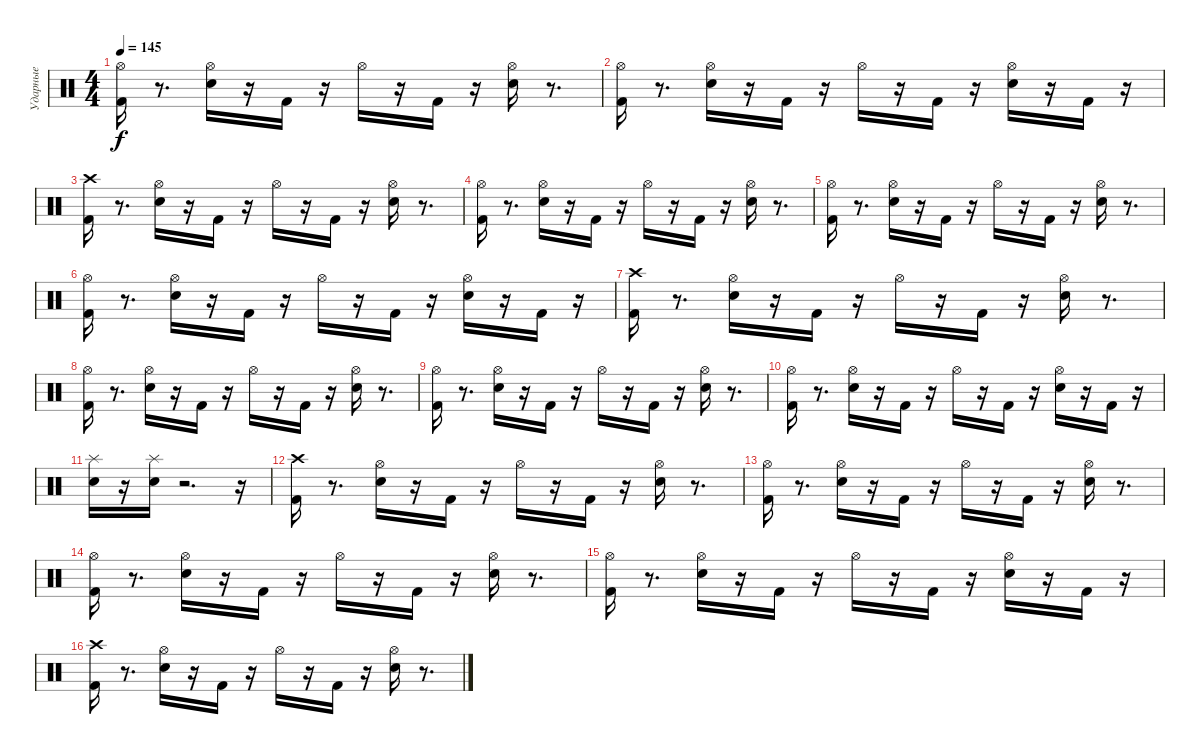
\track ("Ударные" "Ударные") {instrument percussion}
\staff {score}
\articulation defaults
\ts (4 4)
\tempo 145
\clef neutral
\ks c
("Hi-Hat (open)" "Kick (hit) 2").16{dy f} r.8{d} ("Hi-Hat (open)" "Electric Snare (hit)").16 r.16 "Kick (hit) 2".16 r.16 "Hi-Hat (open)".16 r.16 "Kick (hit) 2".16 r.16 ("Hi-Hat (open)" "Electric Snare (hit)").16 r.8{d} |
("Hi-Hat (open)" "Kick (hit) 2").16 r.8{d} ("Hi-Hat (open)" "Electric Snare (hit)").16 r.16 "Kick (hit) 2".16 r.16 "Hi-Hat (open)".16 r.16 "Kick (hit) 2".16 r.16 ("Electric Snare (hit)" "Hi-Hat (open)").16 r.16 "Kick (hit) 2".16 r.16 |
("Kick (hit) 2" "Crash high (hit)").16 r.8{d} ("Electric Snare (hit)" "Hi-Hat (open)").16 r.16 "Kick (hit) 2".16 r.16 "Hi-Hat (open)".16 r.16 "Kick (hit) 2".16 r.16 ("Hi-Hat (open)" "Electric Snare (hit)").16 r.8{d} |
("Kick (hit) 2" "Hi-Hat (open)").16 r.8{d} ("Hi-Hat (open)" "Electric Snare (hit)").16 r.16 "Kick (hit) 2".16 r.16 "Hi-Hat (open)".16 r.16 "Kick (hit) 2".16 r.16 ("Hi-Hat (open)" "Electric Snare (hit)").16 r.8{d} |
("Hi-Hat (open)" "Kick (hit) 2").16 r.8{d} ("Hi-Hat (open)" "Electric Snare (hit)").16 r.16 "Kick (hit) 2".16 r.16 "Hi-Hat (open)".16 r.16 "Kick (hit) 2".16 r.16 ("Hi-Hat (open)" "Electric Snare (hit)").16 r.8{d} |
("Kick (hit) 2" "Hi-Hat (open)").16 r.8{d} ("Hi-Hat (open)" "Electric Snare (hit)").16 r.16 "Kick (hit) 2".16 r.16 "Hi-Hat (open)".16 r.16 "Kick (hit) 2".16 r.16 ("Electric Snare (hit)" "Hi-Hat (open)").16 r.16 "Kick (hit) 2".16 r.16 |
("Kick (hit) 2" "Crash high (hit)").16 r.8{d} ("Electric Snare (hit)" "Hi-Hat (open)").16 r.16 "Kick (hit) 2".16 r.16 "Hi-Hat (open)".16 r.16 "Kick (hit) 2".16 r.16 ("Hi-Hat (open)" "Electric Snare (hit)").16 r.8{d} |
("Hi-Hat (open)" "Kick (hit) 2").16 r.8{d} ("Hi-Hat (open)" "Electric Snare (hit)").16 r.16 "Kick (hit) 2".16 r.16 "Hi-Hat (open)".16 r.16 "Kick (hit) 2".16 r.16 ("Hi-Hat (open)" "Electric Snare (hit)").16 r.8{d} |
("Hi-Hat (open)" "Kick (hit) 2").16 r.8{d} ("Electric Snare (hit)" "Hi-Hat (open)").16 r.16 "Kick (hit) 2".16 r.16 "Hi-Hat (open)".16 r.16 "Kick (hit) 2".16 r.16 ("Hi-Hat (open)" "Electric Snare (hit)").16 r.8{d} |
("Kick (hit) 2" "Hi-Hat (open)").16 r.8{d} ("Hi-Hat (open)" "Electric Snare (hit)").16 r.16 "Kick (hit) 2".16 r.16 "Hi-Hat (open)".16 r.16 "Kick (hit) 2".16 r.16 ("Electric Snare (hit)" "Hi-Hat (open)").16 r.16 "Kick (hit) 2".16 r.16 |
("Electric Snare (hit)" "Splash (hit)").16 r.16 ("Electric Snare (hit)" "Splash (hit)").16 r.2{d} r.16 |
("Crash high (hit)" "Kick (hit) 2").16 r.8{d} ("Electric Snare (hit)" "Hi-Hat (open)").16 r.16 "Kick (hit) 2".16 r.16 "Hi-Hat (open)".16 r.16 "Kick (hit) 2".16 r.16 ("Hi-Hat (open)" "Electric Snare (hit)").16 r.8{d} |
("Hi-Hat (open)" "Kick (hit) 2").16 r.8{d} ("Hi-Hat (open)" "Electric Snare (hit)").16 r.16 "Kick (hit) 2".16 r.16 "Hi-Hat (open)".16 r.16 "Kick (hit) 2".16 r.16 ("Hi-Hat (open)" "Electric Snare (hit)").16 r.8{d} |
("Hi-Hat (open)" "Kick (hit) 2").16 r.8{d} ("Electric Snare (hit)" "Hi-Hat (open)").16 r.16 "Kick (hit) 2".16 r.16 "Hi-Hat (open)".16 r.16 "Kick (hit) 2".16 r.16 ("Electric Snare (hit)" "Hi-Hat (open)").16 r.8{d} |
("Hi-Hat (open)" "Kick (hit) 2").16 r.8{d} ("Hi-Hat (open)" "Electric Snare (hit)").16 r.16 "Kick (hit) 2".16 r.16 "Hi-Hat (open)".16 r.16 "Kick (hit) 2".16 r.16 ("Electric Snare (hit)" "Hi-Hat (open)").16 r.16 "Kick (hit) 2".16 r.16 |
("Crash high (hit)" "Kick (hit) 2").16 r.8{d} ("Electric Snare (hit)" "Hi-Hat (open)").16 r.16 "Kick (hit) 2".16 r.16 "Hi-Hat (open)".16 r.16 "Kick (hit) 2".16 r.16 ("Hi-Hat (open)" "Electric Snare (hit)").16 r.8{d}
